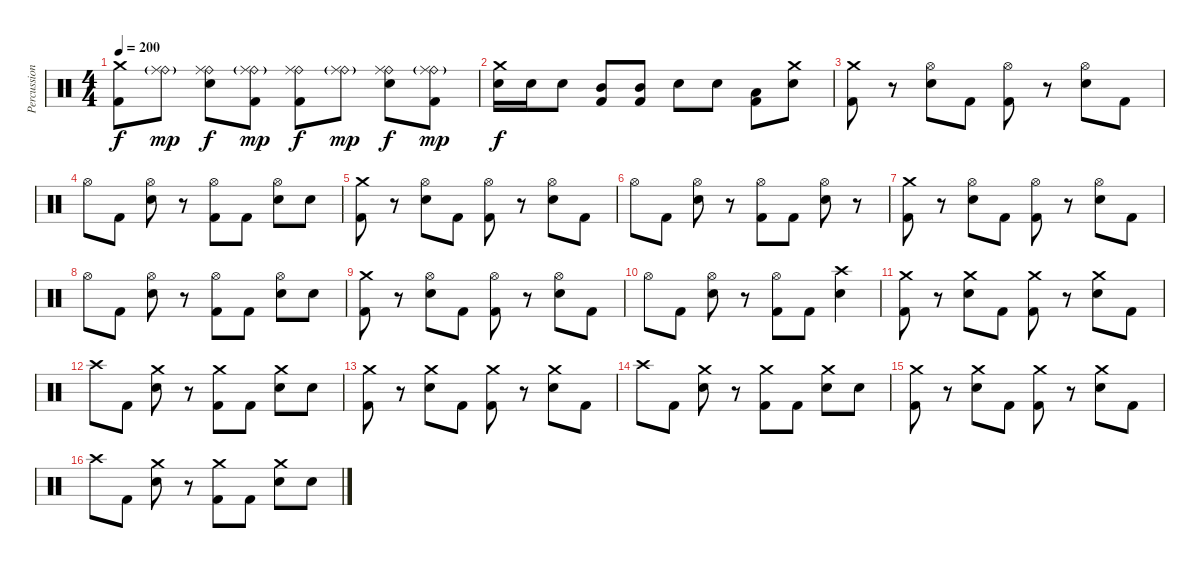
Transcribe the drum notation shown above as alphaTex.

\track ("Percussion" "Percussion") {instrument percussion}
\staff {score}
\articulation defaults
\ts (4 4)
\tempo 200
\clef neutral
\ks c
("Crash medium (hit)" "Kick (hit) 2").8{dy f} ("Ride (bell)"{g} "Ride (middle)").8{dy mp} ("Ride (bell)" "Ride (middle)" "Electric Snare (hit)").8{dy f} ("Ride (bell)"{g} "Ride (middle)" "Kick (hit) 2").8{dy mp} ("Ride (bell)" "Ride (middle)" "Kick (hit) 2").8{dy f} ("Ride (bell)"{g} "Ride (middle)").8{dy mp} ("Ride (bell)" "Ride (middle)" "Electric Snare (hit)").8{dy f} ("Ride (bell)"{g} "Ride (middle)" "Kick (hit) 2").8{dy mp} |
("Crash medium (hit)" "Electric Snare (hit)").16{dy f} "Electric Snare (hit)".16 "Electric Snare (hit)".8 ("Mid Tom (hit)" "Kick (hit) 2").8 ("Mid Tom (hit)" "Kick (hit) 2").8 "Electric Snare (hit)".8 "Electric Snare (hit)".8 ("Low Tom (hit)" "Kick (hit) 2").8 ("Crash medium (hit)" "Electric Snare (hit)").8 |
("Crash medium (hit)" "Kick (hit) 2").8 r.8 ("Hi-Hat (open)" "Electric Snare (hit)").8 "Kick (hit) 2".8 ("Hi-Hat (open)" "Kick (hit) 2").8 r.8 ("Hi-Hat (open)" "Electric Snare (hit)").8 "Kick (hit) 2".8 |
"Hi-Hat (open)".8 "Kick (hit) 2".8 ("Hi-Hat (open)" "Electric Snare (hit)").8 r.8 ("Hi-Hat (open)" "Kick (hit) 2").8 "Kick (hit) 2".8 ("Hi-Hat (open)" "Electric Snare (hit)").8 "Electric Snare (hit)".8 |
("Crash medium (hit)" "Kick (hit) 2").8 r.8 ("Hi-Hat (open)" "Electric Snare (hit)").8 "Kick (hit) 2".8 ("Hi-Hat (open)" "Kick (hit) 2").8 r.8 ("Hi-Hat (open)" "Electric Snare (hit)").8 "Kick (hit) 2".8 |
"Hi-Hat (open)".8 "Kick (hit) 2".8 ("Hi-Hat (open)" "Electric Snare (hit)").8 r.8 ("Hi-Hat (open)" "Kick (hit) 2").8 "Kick (hit) 2".8 ("Hi-Hat (open)" "Electric Snare (hit)").8 r.8 |
("Crash medium (hit)" "Kick (hit) 2").8 r.8 ("Hi-Hat (open)" "Electric Snare (hit)").8 "Kick (hit) 2".8 ("Hi-Hat (open)" "Kick (hit) 2").8 r.8 ("Hi-Hat (open)" "Electric Snare (hit)").8 "Kick (hit) 2".8 |
"Hi-Hat (open)".8 "Kick (hit) 2".8 ("Hi-Hat (open)" "Electric Snare (hit)").8 r.8 ("Hi-Hat (open)" "Kick (hit) 2").8 "Kick (hit) 2".8 ("Hi-Hat (open)" "Electric Snare (hit)").8 "Electric Snare (hit)".8 |
("Crash medium (hit)" "Kick (hit) 2").8 r.8 ("Hi-Hat (open)" "Electric Snare (hit)").8 "Kick (hit) 2".8 ("Hi-Hat (open)" "Kick (hit) 2").8 r.8 ("Hi-Hat (open)" "Electric Snare (hit)").8 "Kick (hit) 2".8 |
"Hi-Hat (open)".8 "Kick (hit) 2".8 ("Hi-Hat (open)" "Electric Snare (hit)").8 r.8 ("Hi-Hat (open)" "Kick (hit) 2").8 "Kick (hit) 2".8 ("Crash high (hit)" "Electric Snare (hit)").4 |
("Crash medium (hit)" "Kick (hit) 2").8 r.8 ("Crash medium (hit)" "Electric Snare (hit)").8 "Kick (hit) 2".8 ("Crash medium (hit)" "Kick (hit) 2").8 r.8 ("Crash medium (hit)" "Electric Snare (hit)").8 "Kick (hit) 2".8 |
"Crash high (hit)".8 "Kick (hit) 2".8 ("Crash medium (hit)" "Electric Snare (hit)").8 r.8 ("Crash medium (hit)" "Kick (hit) 2").8 "Kick (hit) 2".8 ("Crash medium (hit)" "Electric Snare (hit)").8 "Electric Snare (hit)".8 |
("Crash medium (hit)" "Kick (hit) 2").8 r.8 ("Crash medium (hit)" "Electric Snare (hit)").8 "Kick (hit) 2".8 ("Crash medium (hit)" "Kick (hit) 2").8 r.8 ("Crash medium (hit)" "Electric Snare (hit)").8 "Kick (hit) 2".8 |
"Crash high (hit)".8 "Kick (hit) 2".8 ("Crash medium (hit)" "Electric Snare (hit)").8 r.8 ("Crash medium (hit)" "Kick (hit) 2").8 "Kick (hit) 2".8 ("Crash medium (hit)" "Electric Snare (hit)").8 "Electric Snare (hit)".8 |
("Crash medium (hit)" "Kick (hit) 2").8 r.8 ("Crash medium (hit)" "Electric Snare (hit)").8 "Kick (hit) 2".8 ("Crash medium (hit)" "Kick (hit) 2").8 r.8 ("Crash medium (hit)" "Electric Snare (hit)").8 "Kick (hit) 2".8 |
"Crash high (hit)".8 "Kick (hit) 2".8 ("Crash medium (hit)" "Electric Snare (hit)").8 r.8 ("Crash medium (hit)" "Kick (hit) 2").8 "Kick (hit) 2".8 ("Crash medium (hit)" "Electric Snare (hit)").8 "Electric Snare (hit)".8
